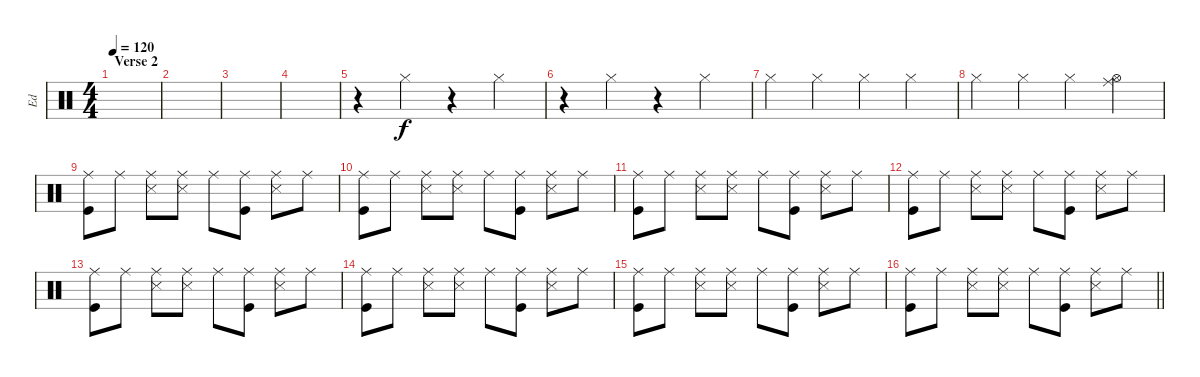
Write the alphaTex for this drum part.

\track ("Ed" "Ed") {instrument percussion}
\staff {score}
\articulation defaults
\ts (4 4)
\section ("" "Verse 2")
\tempo 120
\clef neutral
\ks c
|
|
|
|
r.4 "Hi-Hat (closed)".4 r.4 "Hi-Hat (closed)".4 |
r.4 "Hi-Hat (closed)".4 r.4 "Hi-Hat (closed)".4 |
"Hi-Hat (closed)".4 "Hi-Hat (closed)".4 "Hi-Hat (closed)".4 "Hi-Hat (closed)".4 |
"Hi-Hat (closed)".4 "Hi-Hat (closed)".4 "Hi-Hat (closed)".4 ("Hi-Hat (open)" "Ride (middle)").4 |
("Kick (hit)" "Ride (middle)").8{volume 16} "Ride (middle)".8 ("Ride (middle)" "Snare (side stick) 3").8 ("Ride (middle)" "Snare (side stick) 3").8 "Ride (middle)".8 ("Ride (middle)" "Kick (hit)").8 ("Ride (middle)" "Snare (side stick) 3").8 "Ride (middle)".8 |
("Kick (hit)" "Ride (middle)").8{volume 16} "Ride (middle)".8 ("Ride (middle)" "Snare (side stick) 3").8 ("Ride (middle)" "Snare (side stick) 3").8 "Ride (middle)".8 ("Ride (middle)" "Kick (hit)").8 ("Ride (middle)" "Snare (side stick) 3").8 "Ride (middle)".8 |
("Kick (hit)" "Ride (middle)").8{volume 16} "Ride (middle)".8 ("Ride (middle)" "Snare (side stick) 3").8 ("Ride (middle)" "Snare (side stick) 3").8 "Ride (middle)".8 ("Ride (middle)" "Kick (hit)").8 ("Ride (middle)" "Snare (side stick) 3").8 "Ride (middle)".8 |
("Kick (hit)" "Ride (middle)").8{volume 16} "Ride (middle)".8 ("Ride (middle)" "Snare (side stick) 3").8 ("Ride (middle)" "Snare (side stick) 3").8 "Ride (middle)".8 ("Ride (middle)" "Kick (hit)").8 ("Ride (middle)" "Snare (side stick) 3").8 "Ride (middle)".8 |
("Kick (hit)" "Ride (middle)").8{volume 16} "Ride (middle)".8 ("Ride (middle)" "Snare (side stick) 3").8 ("Ride (middle)" "Snare (side stick) 3").8 "Ride (middle)".8 ("Ride (middle)" "Kick (hit)").8 ("Ride (middle)" "Snare (side stick) 3").8 "Ride (middle)".8 |
("Kick (hit)" "Ride (middle)").8{volume 16} "Ride (middle)".8 ("Ride (middle)" "Snare (side stick) 3").8 ("Ride (middle)" "Snare (side stick) 3").8 "Ride (middle)".8 ("Ride (middle)" "Kick (hit)").8 ("Ride (middle)" "Snare (side stick) 3").8 "Ride (middle)".8 |
("Kick (hit)" "Ride (middle)").8{volume 16} "Ride (middle)".8 ("Ride (middle)" "Snare (side stick) 3").8 ("Ride (middle)" "Snare (side stick) 3").8 "Ride (middle)".8 ("Ride (middle)" "Kick (hit)").8 ("Ride (middle)" "Snare (side stick) 3").8 "Ride (middle)".8 |
\barLineRight lightlight
("Kick (hit)" "Ride (middle)").8{volume 16} "Ride (middle)".8 ("Ride (middle)" "Snare (side stick) 3").8 ("Ride (middle)" "Snare (side stick) 3").8 "Ride (middle)".8 ("Ride (middle)" "Kick (hit)").8 ("Ride (middle)" "Snare (side stick) 3").8 "Ride (middle)".8
